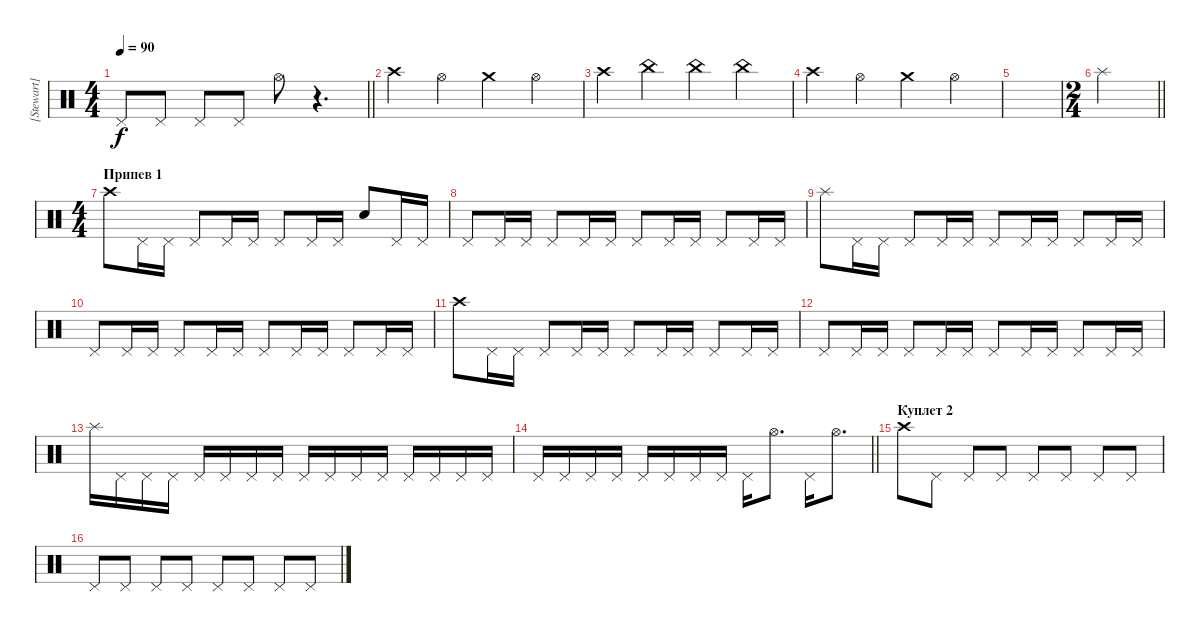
\track ("[Stewart] (hats)" "[Stewart] ") {instrument percussion}
\staff {score}
\articulation defaults
\ts (4 4)
\tempo 90
\clef neutral
\barLineRight lightlight
\ks c "Pedal Hi-Hat (hit)".8{dy f} "Pedal Hi-Hat (hit)".8 "Pedal Hi-Hat (hit)".8 "Pedal Hi-Hat (hit)".8 "Hi-Hat (open)".8
r.4{d} |
"Crash high (hit)".4 "Hi-Hat (open)".4 "Crash medium (hit)".4 "Hi-Hat (open)".4 |
"Crash high (hit)".4 "China (hit)".4 "China (hit)".4 "China (hit)".4 |
"Crash high (hit)".4 "Hi-Hat (open)".4 "Crash medium (hit)".4 "Hi-Hat (open)".4 |
|
\ts (2 4)
\barLineRight lightlight "Splash (hit)".2
|
\ts (4 4)
\section ("" "Припев 1")
"Crash high (hit)".8 "Pedal Hi-Hat (hit)".16 "Pedal Hi-Hat (hit)".16 "Pedal Hi-Hat (hit)".8 "Pedal Hi-Hat (hit)".16 "Pedal Hi-Hat (hit)".16 "Pedal Hi-Hat (hit)".8 "Pedal Hi-Hat (hit)".16 "Pedal Hi-Hat (hit)".16 "Snare (hit)".8 "Pedal Hi-Hat (hit)".16 "Pedal Hi-Hat (hit)".16 |
"Pedal Hi-Hat (hit)".8 "Pedal Hi-Hat (hit)".16 "Pedal Hi-Hat (hit)".16 "Pedal Hi-Hat (hit)".8 "Pedal Hi-Hat (hit)".16 "Pedal Hi-Hat (hit)".16 "Pedal Hi-Hat (hit)".8 "Pedal Hi-Hat (hit)".16 "Pedal Hi-Hat (hit)".16 "Pedal Hi-Hat (hit)".8 "Pedal Hi-Hat (hit)".16 "Pedal Hi-Hat (hit)".16 |
"Splash (hit)".8 "Pedal Hi-Hat (hit)".16 "Pedal Hi-Hat (hit)".16 "Pedal Hi-Hat (hit)".8 "Pedal Hi-Hat (hit)".16 "Pedal Hi-Hat (hit)".16 "Pedal Hi-Hat (hit)".8 "Pedal Hi-Hat (hit)".16 "Pedal Hi-Hat (hit)".16 "Pedal Hi-Hat (hit)".8 "Pedal Hi-Hat (hit)".16 "Pedal Hi-Hat (hit)".16 |
"Pedal Hi-Hat (hit)".8 "Pedal Hi-Hat (hit)".16 "Pedal Hi-Hat (hit)".16 "Pedal Hi-Hat (hit)".8 "Pedal Hi-Hat (hit)".16 "Pedal Hi-Hat (hit)".16 "Pedal Hi-Hat (hit)".8 "Pedal Hi-Hat (hit)".16 "Pedal Hi-Hat (hit)".16 "Pedal Hi-Hat (hit)".8 "Pedal Hi-Hat (hit)".16 "Pedal Hi-Hat (hit)".16 |
"Crash high (hit)".8 "Pedal Hi-Hat (hit)".16 "Pedal Hi-Hat (hit)".16 "Pedal Hi-Hat (hit)".8 "Pedal Hi-Hat (hit)".16 "Pedal Hi-Hat (hit)".16 "Pedal Hi-Hat (hit)".8 "Pedal Hi-Hat (hit)".16 "Pedal Hi-Hat (hit)".16 "Pedal Hi-Hat (hit)".8 "Pedal Hi-Hat (hit)".16 "Pedal Hi-Hat (hit)".16 |
"Pedal Hi-Hat (hit)".8 "Pedal Hi-Hat (hit)".16 "Pedal Hi-Hat (hit)".16 "Pedal Hi-Hat (hit)".8 "Pedal Hi-Hat (hit)".16 "Pedal Hi-Hat (hit)".16 "Pedal Hi-Hat (hit)".8 "Pedal Hi-Hat (hit)".16 "Pedal Hi-Hat (hit)".16 "Pedal Hi-Hat (hit)".8 "Pedal Hi-Hat (hit)".16 "Pedal Hi-Hat (hit)".16 |
"Splash (hit)".16 "Pedal Hi-Hat (hit)".16 "Pedal Hi-Hat (hit)".16 "Pedal Hi-Hat (hit)".16 "Pedal Hi-Hat (hit)".16 "Pedal Hi-Hat (hit)".16 "Pedal Hi-Hat (hit)".16 "Pedal Hi-Hat (hit)".16 "Pedal Hi-Hat (hit)".16 "Pedal Hi-Hat (hit)".16 "Pedal Hi-Hat (hit)".16 "Pedal Hi-Hat (hit)".16 "Pedal Hi-Hat (hit)".16 "Pedal Hi-Hat (hit)".16 "Pedal Hi-Hat (hit)".16 "Pedal Hi-Hat (hit)".16 |
\barLineRight lightlight "Pedal Hi-Hat (hit)".16 "Pedal Hi-Hat (hit)".16 "Pedal Hi-Hat (hit)".16 "Pedal Hi-Hat (hit)".16 "Pedal Hi-Hat (hit)".16 "Pedal Hi-Hat (hit)".16 "Pedal Hi-Hat (hit)".16 "Pedal Hi-Hat (hit)".16 "Pedal Hi-Hat (hit)".16 "Hi-Hat (open)".8{d} "Pedal Hi-Hat (hit)".16 "Hi-Hat (open)".8{d}
|
\section ("" "Куплет 2")
"Crash high (hit)".8 "Pedal Hi-Hat (hit)".8 "Pedal Hi-Hat (hit)".8 "Pedal Hi-Hat (hit)".8 "Pedal Hi-Hat (hit)".8 "Pedal Hi-Hat (hit)".8 "Pedal Hi-Hat (hit)".8 "Pedal Hi-Hat (hit)".8 |
"Pedal Hi-Hat (hit)".8 "Pedal Hi-Hat (hit)".8 "Pedal Hi-Hat (hit)".8 "Pedal Hi-Hat (hit)".8 "Pedal Hi-Hat (hit)".8 "Pedal Hi-Hat (hit)".8 "Pedal Hi-Hat (hit)".8 "Pedal Hi-Hat (hit)".8
